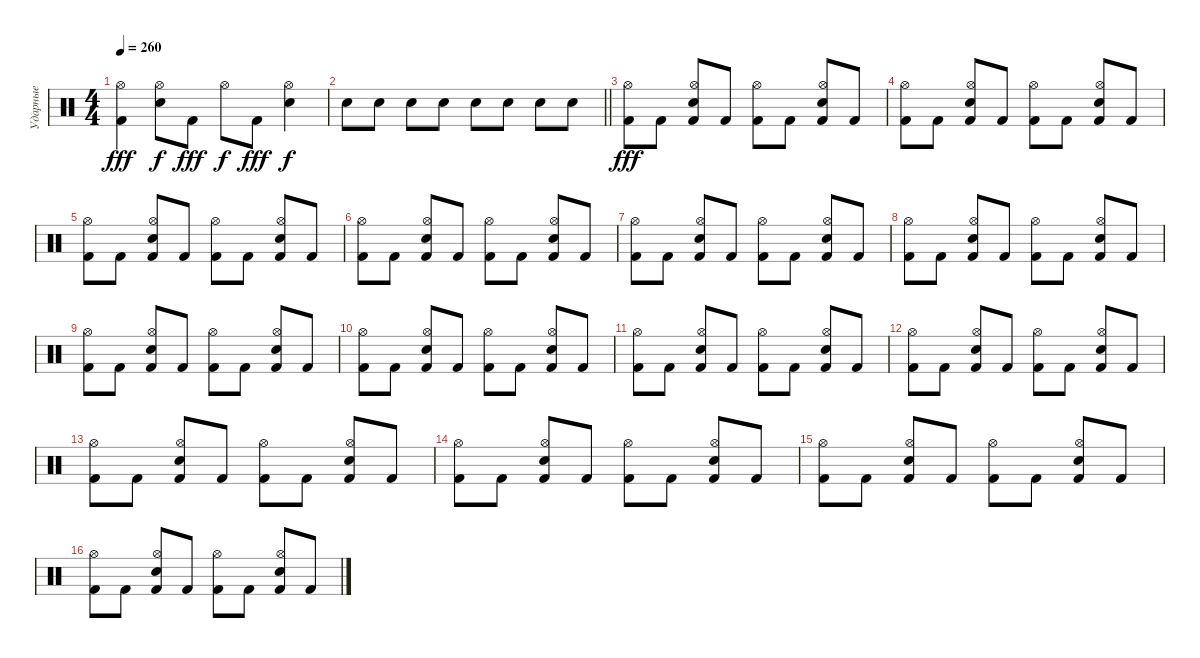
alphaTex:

\track ("Ударные" "Ударные") {instrument percussion}
\staff {score}
\articulation defaults
\ts (4 4)
\tempo 260
\clef neutral
\ks c
("Kick (hit) 2" "Hi-Hat (open)").4{dy fff} ("Snare (hit) 2" "Hi-Hat (open)").8{dy f} "Kick (hit) 2".8{dy fff} "Hi-Hat (open)".8{dy f} "Kick (hit) 2".8{dy fff} ("Snare (hit) 2" "Hi-Hat (open)").4{dy f} |
\barLineRight lightlight "Electric Snare (hit)".8 "Snare (hit) 2".8 "Snare (hit) 2".8 "Electric Snare (hit)".8 "Snare (hit) 2".8 "Snare (hit) 2".8 "Snare (hit) 2".8 "Snare (hit) 2".8
|
("Kick (hit) 2" "Hi-Hat (open)").8{dy fff} "Kick (hit) 2".8 ("Kick (hit) 2" "Snare (hit) 2" "Hi-Hat (open)").8 "Kick (hit) 2".8 ("Kick (hit) 2" "Hi-Hat (open)").8 "Kick (hit) 2".8 ("Kick (hit) 2" "Snare (hit) 2" "Hi-Hat (open)").8 "Kick (hit) 2".8 |
("Kick (hit) 2" "Hi-Hat (open)").8 "Kick (hit) 2".8 ("Kick (hit) 2" "Snare (hit) 2" "Hi-Hat (open)").8 "Kick (hit) 2".8 ("Kick (hit) 2" "Hi-Hat (open)").8 "Kick (hit) 2".8 ("Kick (hit) 2" "Snare (hit) 2" "Hi-Hat (open)").8 "Kick (hit) 2".8 |
("Kick (hit) 2" "Hi-Hat (open)").8 "Kick (hit) 2".8 ("Kick (hit) 2" "Snare (hit) 2" "Hi-Hat (open)").8 "Kick (hit) 2".8 ("Kick (hit) 2" "Hi-Hat (open)").8 "Kick (hit) 2".8 ("Kick (hit) 2" "Snare (hit) 2" "Hi-Hat (open)").8 "Kick (hit) 2".8 |
("Kick (hit) 2" "Hi-Hat (open)").8 "Kick (hit) 2".8 ("Kick (hit) 2" "Snare (hit) 2" "Hi-Hat (open)").8 "Kick (hit) 2".8 ("Kick (hit) 2" "Hi-Hat (open)").8 "Kick (hit) 2".8 ("Kick (hit) 2" "Snare (hit) 2" "Hi-Hat (open)").8 "Kick (hit) 2".8 |
("Kick (hit) 2" "Hi-Hat (open)").8 "Kick (hit) 2".8 ("Kick (hit) 2" "Snare (hit) 2" "Hi-Hat (open)").8 "Kick (hit) 2".8 ("Kick (hit) 2" "Hi-Hat (open)").8 "Kick (hit) 2".8 ("Kick (hit) 2" "Snare (hit) 2" "Hi-Hat (open)").8 "Kick (hit) 2".8 |
("Kick (hit) 2" "Hi-Hat (open)").8 "Kick (hit) 2".8 ("Kick (hit) 2" "Snare (hit) 2" "Hi-Hat (open)").8 "Kick (hit) 2".8 ("Kick (hit) 2" "Hi-Hat (open)").8 "Kick (hit) 2".8 ("Kick (hit) 2" "Snare (hit) 2" "Hi-Hat (open)").8 "Kick (hit) 2".8 |
("Kick (hit) 2" "Hi-Hat (open)").8 "Kick (hit) 2".8 ("Kick (hit) 2" "Snare (hit) 2" "Hi-Hat (open)").8 "Kick (hit) 2".8 ("Kick (hit) 2" "Hi-Hat (open)").8 "Kick (hit) 2".8 ("Kick (hit) 2" "Snare (hit) 2" "Hi-Hat (open)").8 "Kick (hit) 2".8 |
("Kick (hit) 2" "Hi-Hat (open)").8 "Kick (hit) 2".8 ("Kick (hit) 2" "Snare (hit) 2" "Hi-Hat (open)").8 "Kick (hit) 2".8 ("Kick (hit) 2" "Hi-Hat (open)").8 "Kick (hit) 2".8 ("Kick (hit) 2" "Snare (hit) 2" "Hi-Hat (open)").8 "Kick (hit) 2".8 |
("Kick (hit) 2" "Hi-Hat (open)").8 "Kick (hit) 2".8 ("Kick (hit) 2" "Snare (hit) 2" "Hi-Hat (open)").8 "Kick (hit) 2".8 ("Kick (hit) 2" "Hi-Hat (open)").8 "Kick (hit) 2".8 ("Kick (hit) 2" "Snare (hit) 2" "Hi-Hat (open)").8 "Kick (hit) 2".8 |
("Kick (hit) 2" "Hi-Hat (open)").8 "Kick (hit) 2".8 ("Kick (hit) 2" "Snare (hit) 2" "Hi-Hat (open)").8 "Kick (hit) 2".8 ("Kick (hit) 2" "Hi-Hat (open)").8 "Kick (hit) 2".8 ("Kick (hit) 2" "Snare (hit) 2" "Hi-Hat (open)").8 "Kick (hit) 2".8 |
("Kick (hit) 2" "Hi-Hat (open)").8 "Kick (hit) 2".8 ("Kick (hit) 2" "Snare (hit) 2" "Hi-Hat (open)").8 "Kick (hit) 2".8 ("Kick (hit) 2" "Hi-Hat (open)").8 "Kick (hit) 2".8 ("Kick (hit) 2" "Snare (hit) 2" "Hi-Hat (open)").8 "Kick (hit) 2".8 |
("Kick (hit) 2" "Hi-Hat (open)").8 "Kick (hit) 2".8 ("Kick (hit) 2" "Snare (hit) 2" "Hi-Hat (open)").8 "Kick (hit) 2".8 ("Kick (hit) 2" "Hi-Hat (open)").8 "Kick (hit) 2".8 ("Kick (hit) 2" "Snare (hit) 2" "Hi-Hat (open)").8 "Kick (hit) 2".8 |
("Kick (hit) 2" "Hi-Hat (open)").8 "Kick (hit) 2".8 ("Kick (hit) 2" "Snare (hit) 2" "Hi-Hat (open)").8 "Kick (hit) 2".8 ("Kick (hit) 2" "Hi-Hat (open)").8 "Kick (hit) 2".8 ("Kick (hit) 2" "Snare (hit) 2" "Hi-Hat (open)").8 "Kick (hit) 2".8 |
("Kick (hit) 2" "Hi-Hat (open)").8 "Kick (hit) 2".8 ("Kick (hit) 2" "Snare (hit) 2" "Hi-Hat (open)").8 "Kick (hit) 2".8 ("Kick (hit) 2" "Hi-Hat (open)").8 "Kick (hit) 2".8 ("Kick (hit) 2" "Snare (hit) 2" "Hi-Hat (open)").8 "Kick (hit) 2".8
